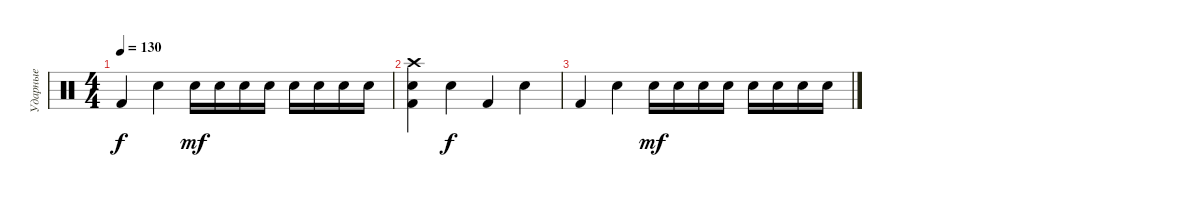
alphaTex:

\track ("Ударные" "Ударные") {instrument percussion}
\staff {score}
\articulation defaults
\ts (4 4)
\tempo 130
\clef neutral
\ks c "Kick (hit) 2".4{dy f} "Electric Snare (hit)".4 "Electric Snare (hit)".16{dy mf} "Electric Snare (hit)".16 "Electric Snare (hit)".16 "Electric Snare (hit)".16 "Electric Snare (hit)".16 "Electric Snare (hit)".16 "Electric Snare (hit)".16 "Electric Snare (hit)".16
|
("Kick (hit) 2" "Crash high (hit)" "Electric Snare (hit)").4 "Electric Snare (hit)".4{dy f} "Kick (hit) 2".4 "Electric Snare (hit)".4 |
"Kick (hit) 2".4 "Electric Snare (hit)".4 "Electric Snare (hit)".16{dy mf} "Electric Snare (hit)".16 "Electric Snare (hit)".16 "Electric Snare (hit)".16 "Electric Snare (hit)".16 "Electric Snare (hit)".16 "Electric Snare (hit)".16 "Electric Snare (hit)".16
